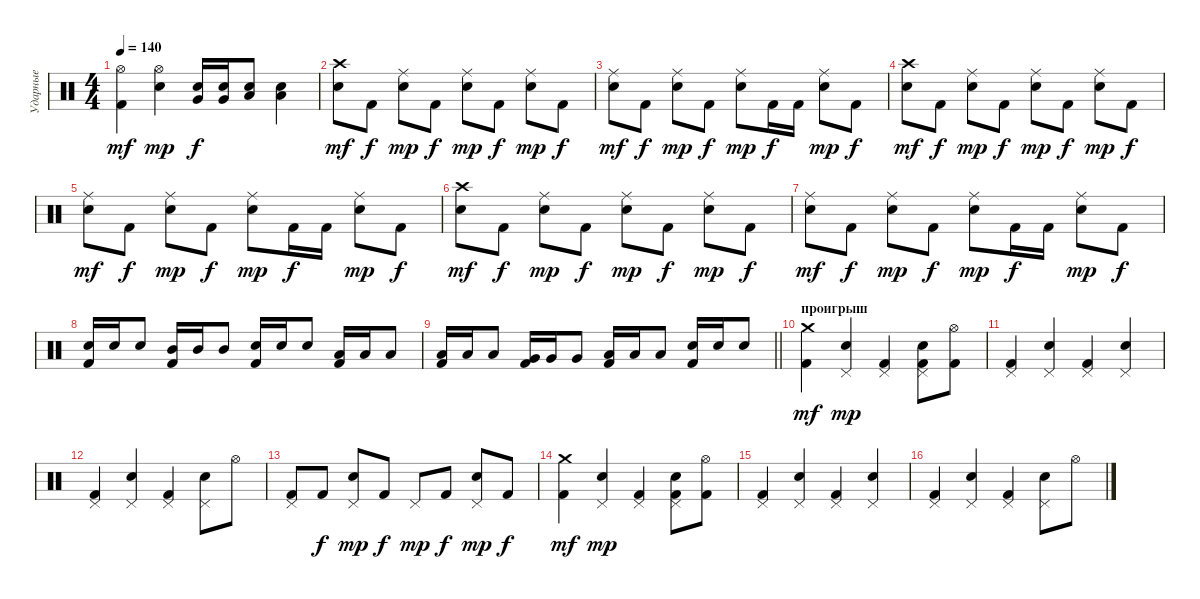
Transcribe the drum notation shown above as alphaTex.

\track ("Ударные" "Ударные") {instrument percussion}
\staff {score}
\articulation defaults
\ts (4 4)
\tempo 140
\clef neutral
\ks c
("Kick (hit) 2" "Hi-Hat (open)").4{dy mf} ("Snare (hit) 2" "Hi-Hat (open)").4{dy mp} ("Snare (hit) 2" "Very Low Tom (hit)").16{dy f} ("Snare (hit) 2" "Very Low Tom (hit)").16 ("Snare (hit) 2" "Low Floor Tom (hit)").8 ("Snare (hit) 2" "Low Floor Tom (hit)").4 |
("Snare (hit) 2" "Crash high (hit)").8{dy mf} "Kick (hit) 2".8{dy f} ("Snare (hit) 2" "Ride (middle)").8{dy mp} "Kick (hit) 2".8{dy f} ("Snare (hit) 2" "Ride (middle)").8{dy mp} "Kick (hit) 2".8{dy f} ("Snare (hit) 2" "Ride (middle)").8{dy mp} "Kick (hit) 2".8{dy f} |
("Snare (hit) 2" "Ride (middle)").8{dy mf} "Kick (hit) 2".8{dy f} ("Snare (hit) 2" "Ride (middle)").8{dy mp} "Kick (hit) 2".8{dy f} ("Snare (hit) 2" "Ride (middle)").8{dy mp} "Kick (hit) 2".16{dy f} "Kick (hit) 2".16 ("Snare (hit) 2" "Ride (middle)").8{dy mp} "Kick (hit) 2".8{dy f} |
("Snare (hit) 2" "Crash high (hit)").8{dy mf} "Kick (hit) 2".8{dy f} ("Snare (hit) 2" "Ride (middle)").8{dy mp} "Kick (hit) 2".8{dy f} ("Snare (hit) 2" "Ride (middle)").8{dy mp} "Kick (hit) 2".8{dy f} ("Snare (hit) 2" "Ride (middle)").8{dy mp} "Kick (hit) 2".8{dy f} |
("Snare (hit) 2" "Ride (middle)").8{dy mf} "Kick (hit) 2".8{dy f} ("Snare (hit) 2" "Ride (middle)").8{dy mp} "Kick (hit) 2".8{dy f} ("Snare (hit) 2" "Ride (middle)").8{dy mp} "Kick (hit) 2".16{dy f} "Kick (hit) 2".16 ("Snare (hit) 2" "Ride (middle)").8{dy mp} "Kick (hit) 2".8{dy f} |
("Snare (hit) 2" "Crash high (hit)").8{dy mf} "Kick (hit) 2".8{dy f} ("Snare (hit) 2" "Ride (middle)").8{dy mp} "Kick (hit) 2".8{dy f} ("Snare (hit) 2" "Ride (middle)").8{dy mp} "Kick (hit) 2".8{dy f} ("Snare (hit) 2" "Ride (middle)").8{dy mp} "Kick (hit) 2".8{dy f} |
("Snare (hit) 2" "Ride (middle)").8{dy mf} "Kick (hit) 2".8{dy f} ("Snare (hit) 2" "Ride (middle)").8{dy mp} "Kick (hit) 2".8{dy f} ("Snare (hit) 2" "Ride (middle)").8{dy mp} "Kick (hit) 2".16{dy f} "Kick (hit) 2".16 ("Snare (hit) 2" "Ride (middle)").8{dy mp} "Kick (hit) 2".8{dy f} |
("Kick (hit) 2" "Snare (hit) 2").16 "Snare (hit) 2".16 "Snare (hit) 2".8 ("Kick (hit) 2" "Mid Tom (hit)").16 "Mid Tom (hit)".16 "Mid Tom (hit)".8 ("Kick (hit) 2" "Snare (hit) 2").16 "Snare (hit) 2".16 "Snare (hit) 2".8 ("Kick (hit) 2" "Low Tom (hit)").16 "Low Tom (hit)".16 "Low Tom (hit)".8 |
\barLineRight lightlight
("Kick (hit) 2" "Low Tom (hit)").16 "Low Tom (hit)".16 "Low Tom (hit)".8 ("Kick (hit) 2" "Very Low Tom (hit)").16 "Very Low Tom (hit)".16 "Very Low Tom (hit)".8 ("Kick (hit) 2" "Low Floor Tom (hit)").16 "Low Floor Tom (hit)".16 "Low Floor Tom (hit)".8 ("Kick (hit) 2" "Snare (hit) 2").16 "Snare (hit) 2".16 "Snare (hit) 2".8 |
\section ("" "проигрыш")
("Kick (hit) 2" "Crash medium (hit)").4{dy mf} ("Snare (hit) 2" "Pedal Hi-Hat (hit)").4{dy mp} ("Kick (hit) 2" "Pedal Hi-Hat (hit)").4 ("Kick (hit) 2" "Snare (hit) 2" "Pedal Hi-Hat (hit)").8 ("Kick (hit) 2" "Hi-Hat (open)").8 |
("Kick (hit) 2" "Pedal Hi-Hat (hit)").4 ("Snare (hit) 2" "Pedal Hi-Hat (hit)").4 ("Kick (hit) 2" "Pedal Hi-Hat (hit)").4 ("Snare (hit) 2" "Pedal Hi-Hat (hit)").4 |
("Kick (hit) 2" "Pedal Hi-Hat (hit)").4 ("Snare (hit) 2" "Pedal Hi-Hat (hit)").4 ("Kick (hit) 2" "Pedal Hi-Hat (hit)").4 ("Snare (hit) 2" "Pedal Hi-Hat (hit)").8 "Hi-Hat (open)".8 |
("Kick (hit) 2" "Pedal Hi-Hat (hit)").8 "Kick (hit) 2".8{dy f} ("Snare (hit) 2" "Pedal Hi-Hat (hit)").8{dy mp} "Kick (hit) 2".8{dy f} "Pedal Hi-Hat (hit)".8{dy mp} "Kick (hit) 2".8{dy f} ("Snare (hit) 2" "Pedal Hi-Hat (hit)").8{dy mp} "Kick (hit) 2".8{dy f} |
("Kick (hit) 2" "Crash medium (hit)").4{dy mf} ("Snare (hit) 2" "Pedal Hi-Hat (hit)").4{dy mp} ("Kick (hit) 2" "Pedal Hi-Hat (hit)").4 ("Kick (hit) 2" "Snare (hit) 2" "Pedal Hi-Hat (hit)").8 ("Kick (hit) 2" "Hi-Hat (open)").8 |
("Kick (hit) 2" "Pedal Hi-Hat (hit)").4 ("Snare (hit) 2" "Pedal Hi-Hat (hit)").4 ("Kick (hit) 2" "Pedal Hi-Hat (hit)").4 ("Snare (hit) 2" "Pedal Hi-Hat (hit)").4 |
("Kick (hit) 2" "Pedal Hi-Hat (hit)").4 ("Snare (hit) 2" "Pedal Hi-Hat (hit)").4 ("Kick (hit) 2" "Pedal Hi-Hat (hit)").4 ("Snare (hit) 2" "Pedal Hi-Hat (hit)").8 "Hi-Hat (open)".8
